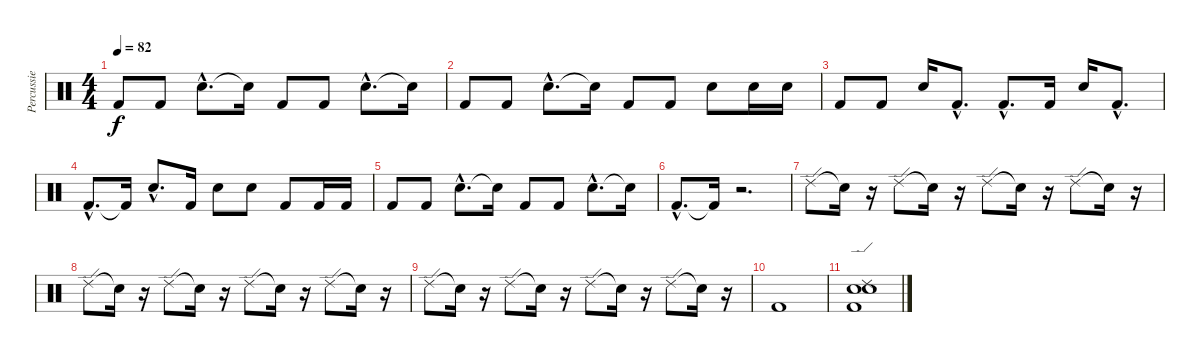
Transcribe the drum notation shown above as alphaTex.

\track ("Percussie" "Percussie") {instrument percussion}
\staff {score}
\articulation defaults
\ts (4 4)
\tempo 82
\clef neutral
\ks c "Kick (hit) 2".8{dy f} "Kick (hit) 2".8 "Snare (hit) 2"{hac}.8{d} "Snare (hit)"{t}.16 "Kick (hit) 2".8 "Kick (hit) 2".8 "Snare (hit) 2"{hac}.8{d} "Snare (hit)"{t}.16
|
"Kick (hit) 2".8 "Kick (hit) 2".8 "Snare (hit) 2"{hac}.8{d} "Snare (hit)"{t}.16 "Kick (hit) 2".8 "Kick (hit) 2".8 "Snare (hit) 2".8 "Snare (hit) 2".16 "Snare (hit) 2".16 |
"Kick (hit) 2".8 "Kick (hit) 2".8 "Snare (hit) 2".16 "Kick (hit) 2"{hac}.8{d} "Kick (hit) 2"{hac}.8{d} "Kick (hit) 2".16 "Snare (hit) 2".16 "Kick (hit) 2"{hac}.8{d} |
"Kick (hit) 2"{hac}.8{d} "Kick (hit) 2"{t}.16 "Snare (hit) 2"{hac}.8{d} "Kick (hit) 2".16 "Snare (hit) 2".8 "Snare (hit) 2".8 "Kick (hit) 2".8 "Kick (hit) 2".16 "Kick (hit) 2".16 |
"Kick (hit) 2".8 "Kick (hit) 2".8 "Snare (hit) 2"{hac}.8{d} "Snare (hit)"{t}.16 "Kick (hit) 2".8 "Kick (hit) 2".8 "Snare (hit) 2"{hac}.8{d} "Snare (hit)"{t}.16 |
"Kick (hit) 2"{hac}.8{d} "Kick (hit) 2"{t}.16 r.2{d} |
"Ride (edge) 2".8 "Snare (hit)"{t}.16 r.16 "Ride (edge) 2".8 "Snare (hit)"{t}.16 r.16 "Ride (edge) 2".8 "Snare (hit)"{t}.16 r.16 "Ride (edge) 2".8 "Snare (hit)"{t}.16 r.16 |
"Ride (edge) 2".8 "Snare (hit)"{t}.16 r.16 "Ride (edge) 2".8 "Snare (hit)"{t}.16 r.16 "Ride (edge) 2".8 "Snare (hit)"{t}.16 r.16 "Ride (edge) 2".8 "Snare (hit)"{t}.16 r.16 |
"Ride (edge) 2".8 "Snare (hit)"{t}.16 r.16 "Ride (edge) 2".8 "Snare (hit)"{t}.16 r.16 "Ride (edge) 2".8 "Snare (hit)"{t}.16 r.16 "Ride (edge) 2".8 "Snare (hit)"{t}.16 r.16 |
"Kick (hit) 2".1 |
("Kick (hit) 2" "Snare (hit) 2" "Electric Snare (hit)" "Ride (edge) 2").1
